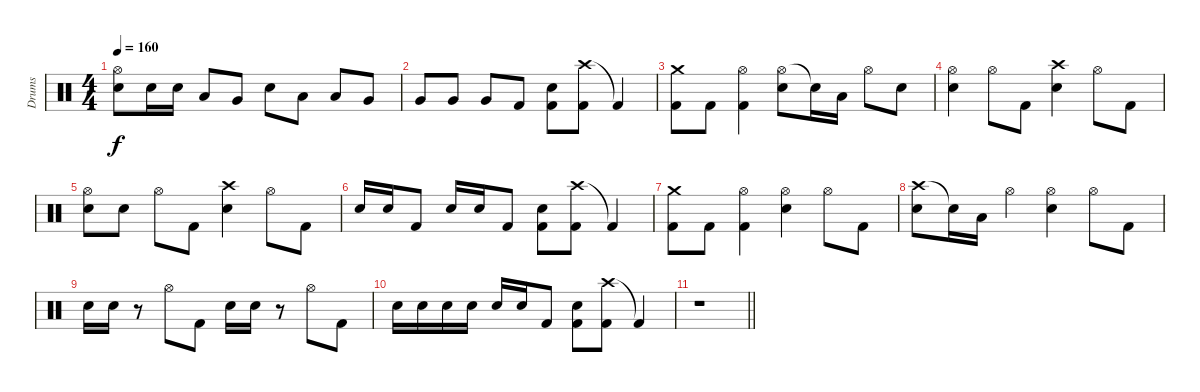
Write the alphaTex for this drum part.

\track ("Drums" "Drums") {instrument percussion}
\staff {score}
\articulation defaults
\ts (4 4)
\tempo 160
\clef neutral
\ks c
("Hi-Hat (open)" "Electric Snare (hit)").8{dy f} "Electric Snare (hit)".16 "Electric Snare (hit)".16 "Low Tom (hit)".8 "Very Low Tom (hit)".8 "Electric Snare (hit)".8 "Low Tom (hit)".8 "Low Tom (hit)".8 "Very Low Tom (hit)".8 |
"Very Low Tom (hit)".8 "Very Low Tom (hit)".8 "Very Low Tom (hit)".8 "Kick (hit) 2".8 ("Electric Snare (hit)" "Kick (hit) 2").8 ("Crash high (hit)" "Kick (hit) 2").8 "Kick (hit) 2"{t}.4 |
("Crash medium (hit)" "Kick (hit) 2").8 "Kick (hit) 2".8 ("Hi-Hat (open)" "Kick (hit) 2").4 ("Hi-Hat (open)" "Electric Snare (hit)").8 "Snare (hit)"{t}.16 "Low Tom (hit)".16 "Hi-Hat (open)".8 "Electric Snare (hit)".8 |
("Hi-Hat (open)" "Electric Snare (hit)").4 "Hi-Hat (open)".8 "Kick (hit) 2".8 ("Crash high (hit)" "Electric Snare (hit)").4 "Hi-Hat (open)".8 "Kick (hit) 2".8 |
("Hi-Hat (open)" "Electric Snare (hit)").8 "Electric Snare (hit)".8 "Hi-Hat (open)".8 "Kick (hit) 2".8 ("Crash high (hit)" "Electric Snare (hit)").4 "Hi-Hat (open)".8 "Kick (hit) 2".8 |
"Electric Snare (hit)".16 "Electric Snare (hit)".16 "Kick (hit) 2".8 "Electric Snare (hit)".16 "Electric Snare (hit)".16 "Kick (hit) 2".8 ("Electric Snare (hit)" "Kick (hit) 2").8 ("Crash high (hit)" "Kick (hit) 2").8 "Kick (hit) 2"{t}.4 |
("Crash medium (hit)" "Kick (hit) 2").8 "Kick (hit) 2".8 ("Hi-Hat (open)" "Kick (hit) 2").4 ("Hi-Hat (open)" "Electric Snare (hit)").4 "Hi-Hat (open)".8 "Kick (hit) 2".8 |
("Crash high (hit)" "Electric Snare (hit)").8 "Snare (hit)"{t}.16 "Low Tom (hit)".16 "Hi-Hat (open)".4 ("Hi-Hat (open)" "Electric Snare (hit)").4 "Hi-Hat (open)".8 "Kick (hit) 2".8 |
"Electric Snare (hit)".16 "Electric Snare (hit)".16 r.8 "Hi-Hat (open)".8 "Kick (hit) 2".8 "Electric Snare (hit)".16 "Electric Snare (hit)".16 r.8 "Hi-Hat (open)".8 "Kick (hit) 2".8 |
"Electric Snare (hit)".16 "Electric Snare (hit)".16 "Electric Snare (hit)".16 "Electric Snare (hit)".16 "Electric Snare (hit)".16 "Electric Snare (hit)".16 "Kick (hit) 2".8 ("Electric Snare (hit)" "Kick (hit) 2").8 ("Crash high (hit)" "Kick (hit) 2").8 "Kick (hit) 2"{t}.4 |
\barLineRight lightlight
r.1{volume 0}
